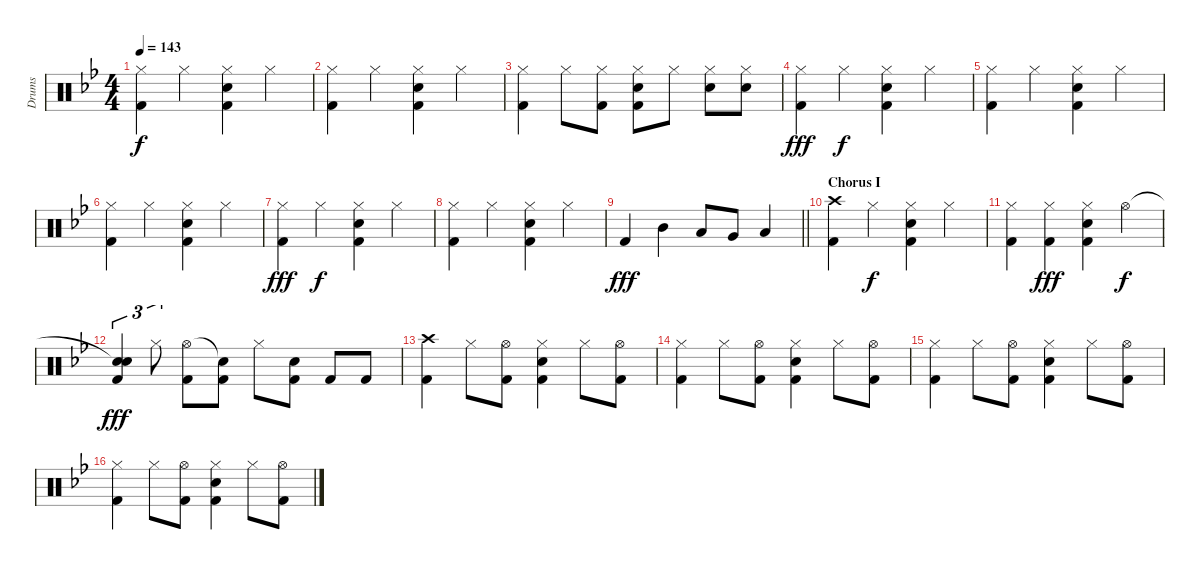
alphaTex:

\track ("Drums" "Drums") {instrument percussion}
\staff {score}
\articulation defaults
\ts (4 4)
\tempo 143
\clef neutral
\ks bb
("Hi-Hat (closed)" "Kick (hit) 2").4{dy f} "Hi-Hat (closed)".4 ("Hi-Hat (closed)" "Snare (hit) 2" "Kick (hit) 2").4 "Hi-Hat (closed)".4 |
("Hi-Hat (closed)" "Kick (hit) 2").4 "Hi-Hat (closed)".4 ("Hi-Hat (closed)" "Snare (hit) 2" "Kick (hit) 2").4 "Hi-Hat (closed)".4 |
("Hi-Hat (closed)" "Kick (hit) 2").4 "Hi-Hat (closed)".8 ("Hi-Hat (closed)" "Kick (hit) 2").8 ("Hi-Hat (closed)" "Snare (hit) 2" "Kick (hit) 2").8 "Hi-Hat (closed)".8 ("Hi-Hat (closed)" "Snare (hit) 2").8 ("Hi-Hat (closed)" "Snare (hit) 2").8 |
("Hi-Hat (closed)" "Kick (hit) 2").4{dy fff} "Hi-Hat (closed)".4{dy f} ("Hi-Hat (closed)" "Snare (hit) 2" "Kick (hit) 2").4 "Hi-Hat (closed)".4 |
("Hi-Hat (closed)" "Kick (hit) 2").4 "Hi-Hat (closed)".4 ("Hi-Hat (closed)" "Snare (hit) 2" "Kick (hit) 2").4 "Hi-Hat (closed)".4 |
("Hi-Hat (closed)" "Kick (hit) 2").4 "Hi-Hat (closed)".4 ("Hi-Hat (closed)" "Snare (hit) 2" "Kick (hit) 2").4 "Hi-Hat (closed)".4 |
("Hi-Hat (closed)" "Kick (hit) 2").4{dy fff} "Hi-Hat (closed)".4{dy f} ("Hi-Hat (closed)" "Snare (hit) 2" "Kick (hit) 2").4 "Hi-Hat (closed)".4 |
("Hi-Hat (closed)" "Kick (hit) 2").4 "Hi-Hat (closed)".4 ("Hi-Hat (closed)" "Snare (hit) 2" "Kick (hit) 2").4 "Hi-Hat (closed)".4 |
\barLineRight lightlight "Kick (hit) 2".4{dy fff} "Mid Tom (hit)".4 "Low Tom (hit)".8 "Very Low Tom (hit)".8 "Low Floor Tom (hit)".4
|
\section ("" "Chorus I")
("Crash high (hit)" "Kick (hit) 2").4 "Hi-Hat (closed)".4{dy f} ("Hi-Hat (closed)" "Snare (hit) 2" "Kick (hit) 2").4 "Hi-Hat (closed)".4 |
("Hi-Hat (closed)" "Kick (hit) 2").4 ("Hi-Hat (closed)" "Kick (hit) 2").4{dy fff} ("Hi-Hat (closed)" "Snare (hit) 2" "Kick (hit) 2").4 "Hi-Hat (open)".4{dy f} |
("Snare (hit)"{t} "Snare (hit) 2" "Kick (hit) 2").4{tu (3 2) dy fff} "Hi-Hat (closed)".8{tu (3 2)} ("Hi-Hat (open)" "Kick (hit) 2").8 ("Snare (hit)"{t} "Kick (hit) 2").8 "Hi-Hat (closed)".8 ("Snare (hit) 2" "Kick (hit) 2").8 "Kick (hit) 2".8 "Kick (hit) 2".8 |
("Crash high (hit)" "Kick (hit) 2").4 "Hi-Hat (closed)".8 ("Hi-Hat (open)" "Kick (hit) 2").8 ("Hi-Hat (closed)" "Snare (hit) 2" "Kick (hit) 2").4 "Hi-Hat (closed)".8 ("Hi-Hat (open)" "Kick (hit) 2").8 |
("Hi-Hat (closed)" "Kick (hit) 2").4 "Hi-Hat (closed)".8 ("Hi-Hat (open)" "Kick (hit) 2").8 ("Hi-Hat (closed)" "Snare (hit) 2" "Kick (hit) 2").4 "Hi-Hat (closed)".8 ("Hi-Hat (open)" "Kick (hit) 2").8 |
("Hi-Hat (closed)" "Kick (hit) 2").4 "Hi-Hat (closed)".8 ("Hi-Hat (open)" "Kick (hit) 2").8 ("Hi-Hat (closed)" "Snare (hit) 2" "Kick (hit) 2").4 "Hi-Hat (closed)".8 ("Hi-Hat (open)" "Kick (hit) 2").8 |
("Hi-Hat (closed)" "Kick (hit) 2").4 "Hi-Hat (closed)".8 ("Hi-Hat (open)" "Kick (hit) 2").8 ("Hi-Hat (closed)" "Snare (hit) 2" "Kick (hit) 2").4 "Hi-Hat (closed)".8 ("Hi-Hat (open)" "Kick (hit) 2").8
